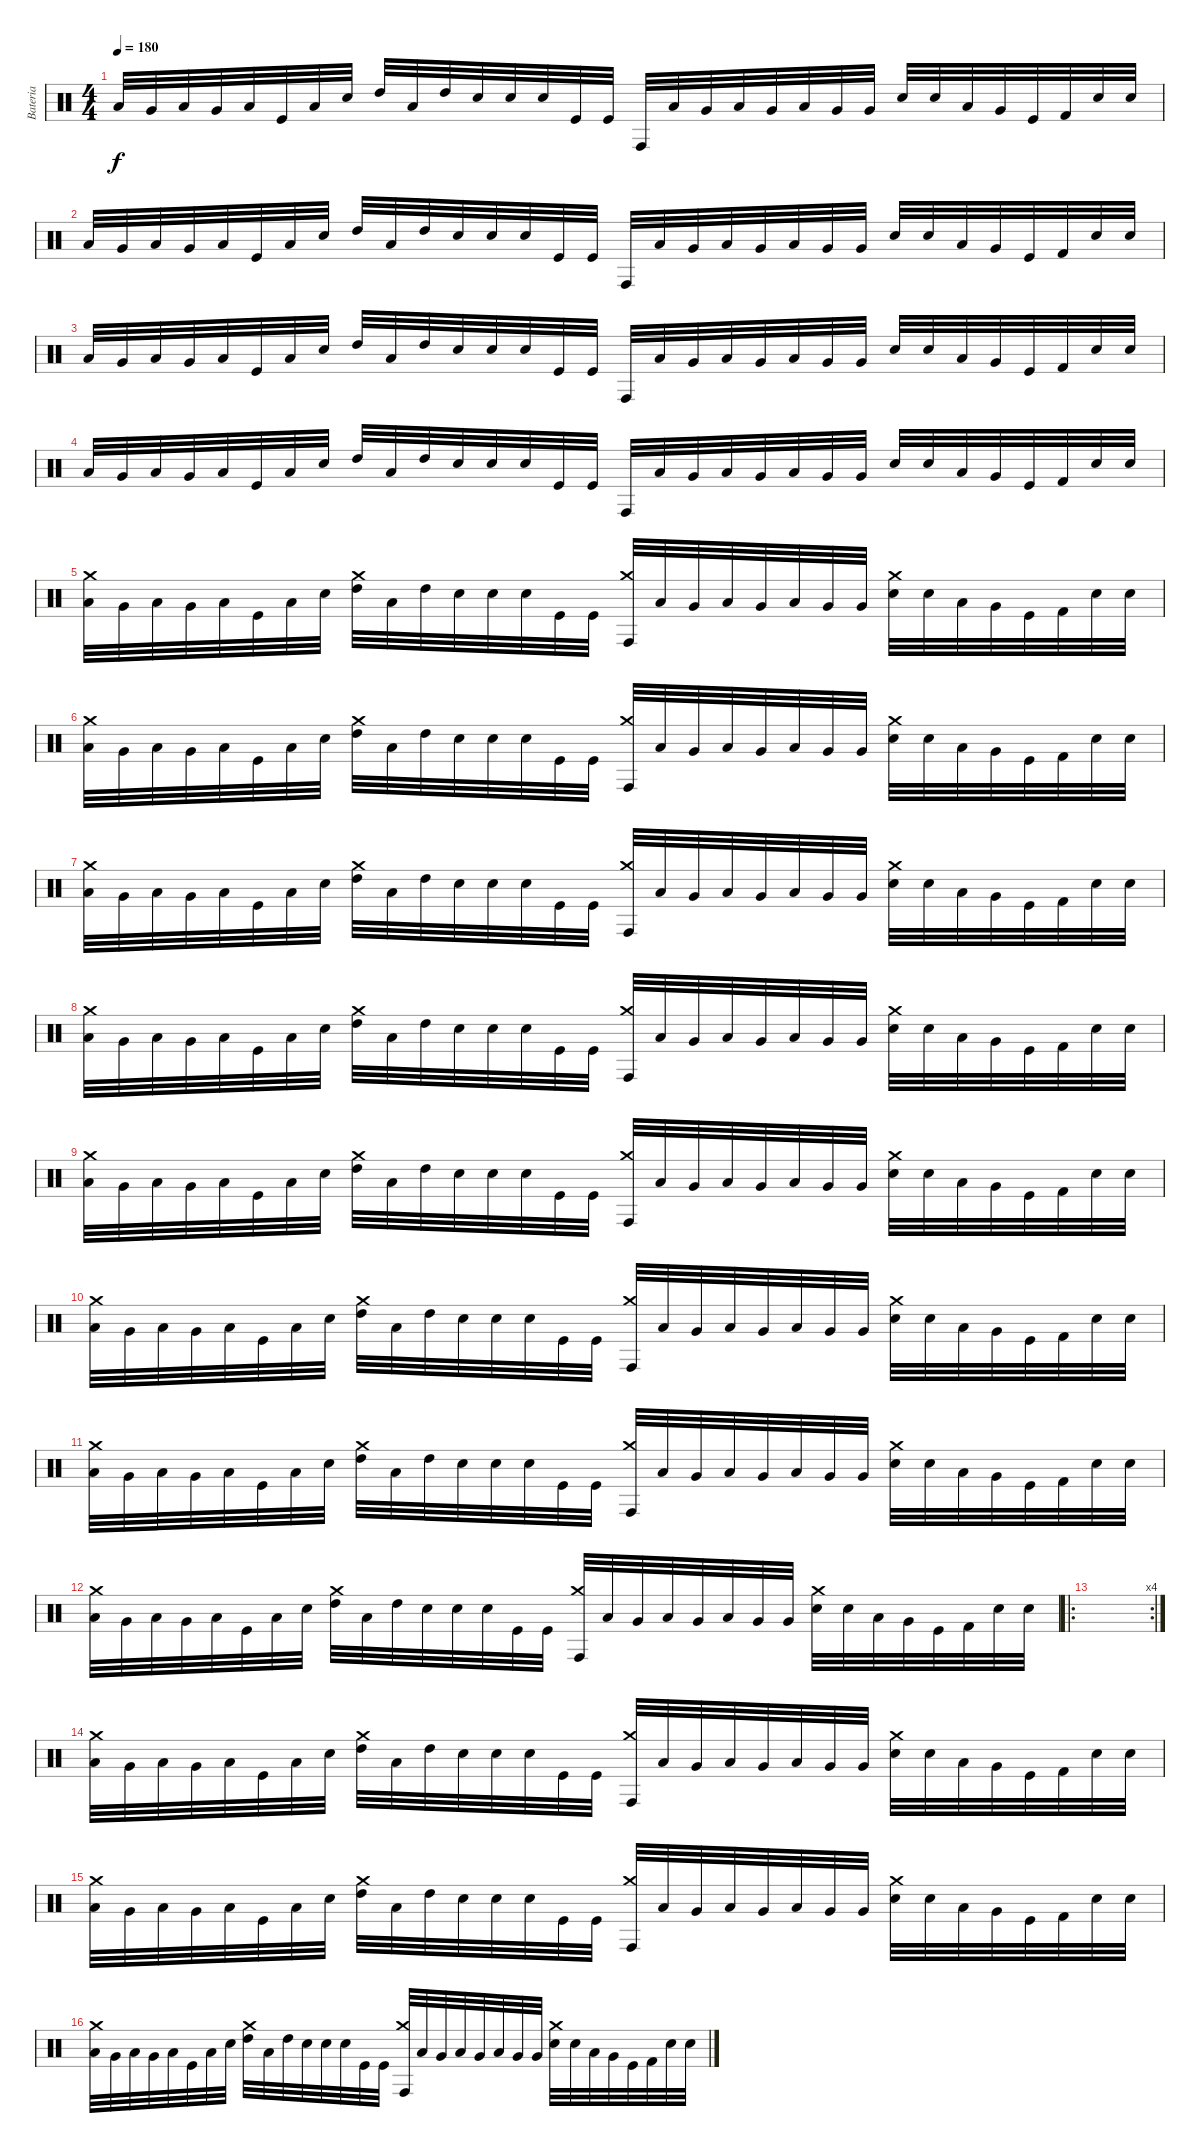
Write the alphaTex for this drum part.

\track ("Bateria" "Bateria") {instrument percussion}
\staff {score}
\articulation defaults
\ts (4 4)
\tempo 180
\clef neutral
\ks c "Low Tom (hit)".32{dy f} "Very Low Tom (hit)".32 "Low Tom (hit)".32 "Very Low Tom (hit)".32 "Low Tom (hit)".32 "Kick (hit)".32 "Low Tom (hit)".32 "Electric Snare (hit)".32 "High Tom (hit)".32 "Low Tom (hit)".32 "High Tom (hit)".32 "Snare (hit) 2".32 "Electric Snare (hit)".32 "Electric Snare (hit)".32 "Kick (hit)".32 "Kick (hit)".32 "Conga high (hit)".32 "Low Tom (hit)".32 "Very Low Tom (hit)".32 "Low Tom (hit)".32 "Very Low Tom (hit)".32 "Low Tom (hit)".32 "Very Low Tom (hit)".32 "Very Low Tom (hit)".32 "Electric Snare (hit)".32 "Snare (hit) 2".32 "Low Tom (hit)".32 "Very Low Tom (hit)".32 "Kick (hit)".32 "Kick (hit) 2".32 "Snare (hit) 2".32 "Snare (hit) 2".32
|
"Low Tom (hit)".32 "Very Low Tom (hit)".32 "Low Tom (hit)".32 "Very Low Tom (hit)".32 "Low Tom (hit)".32 "Kick (hit)".32 "Low Tom (hit)".32 "Electric Snare (hit)".32 "High Tom (hit)".32 "Low Tom (hit)".32 "High Tom (hit)".32 "Snare (hit) 2".32 "Electric Snare (hit)".32 "Electric Snare (hit)".32 "Kick (hit)".32 "Kick (hit)".32 "Conga high (hit)".32 "Low Tom (hit)".32 "Very Low Tom (hit)".32 "Low Tom (hit)".32 "Very Low Tom (hit)".32 "Low Tom (hit)".32 "Very Low Tom (hit)".32 "Very Low Tom (hit)".32 "Electric Snare (hit)".32 "Snare (hit) 2".32 "Low Tom (hit)".32 "Very Low Tom (hit)".32 "Kick (hit)".32 "Kick (hit) 2".32 "Snare (hit) 2".32 "Snare (hit) 2".32 |
"Low Tom (hit)".32 "Very Low Tom (hit)".32 "Low Tom (hit)".32 "Very Low Tom (hit)".32 "Low Tom (hit)".32 "Kick (hit)".32 "Low Tom (hit)".32 "Electric Snare (hit)".32 "High Tom (hit)".32 "Low Tom (hit)".32 "High Tom (hit)".32 "Snare (hit) 2".32 "Electric Snare (hit)".32 "Electric Snare (hit)".32 "Kick (hit)".32 "Kick (hit)".32 "Conga high (hit)".32 "Low Tom (hit)".32 "Very Low Tom (hit)".32 "Low Tom (hit)".32 "Very Low Tom (hit)".32 "Low Tom (hit)".32 "Very Low Tom (hit)".32 "Very Low Tom (hit)".32 "Electric Snare (hit)".32 "Snare (hit) 2".32 "Low Tom (hit)".32 "Very Low Tom (hit)".32 "Kick (hit)".32 "Kick (hit) 2".32 "Snare (hit) 2".32 "Snare (hit) 2".32 |
"Low Tom (hit)".32 "Very Low Tom (hit)".32 "Low Tom (hit)".32 "Very Low Tom (hit)".32 "Low Tom (hit)".32 "Kick (hit)".32 "Low Tom (hit)".32 "Electric Snare (hit)".32 "High Tom (hit)".32 "Low Tom (hit)".32 "High Tom (hit)".32 "Snare (hit) 2".32 "Electric Snare (hit)".32 "Electric Snare (hit)".32 "Kick (hit)".32 "Kick (hit)".32 "Conga high (hit)".32 "Low Tom (hit)".32 "Very Low Tom (hit)".32 "Low Tom (hit)".32 "Very Low Tom (hit)".32 "Low Tom (hit)".32 "Very Low Tom (hit)".32 "Very Low Tom (hit)".32 "Electric Snare (hit)".32 "Snare (hit) 2".32 "Low Tom (hit)".32 "Very Low Tom (hit)".32 "Kick (hit)".32 "Kick (hit) 2".32 "Snare (hit) 2".32 "Snare (hit) 2".32 |
("Low Tom (hit)" "Crash medium (hit)").32 "Very Low Tom (hit)".32 "Low Tom (hit)".32 "Very Low Tom (hit)".32 "Low Tom (hit)".32 "Kick (hit)".32 "Low Tom (hit)".32 "Electric Snare (hit)".32 ("High Tom (hit)" "Crash medium (hit)").32 "Low Tom (hit)".32 "High Tom (hit)".32 "Snare (hit) 2".32 "Electric Snare (hit)".32 "Electric Snare (hit)".32 "Kick (hit)".32 "Kick (hit)".32 ("Conga high (hit)" "Crash medium (hit)").32 "Low Tom (hit)".32 "Very Low Tom (hit)".32 "Low Tom (hit)".32 "Very Low Tom (hit)".32 "Low Tom (hit)".32 "Very Low Tom (hit)".32 "Very Low Tom (hit)".32 ("Electric Snare (hit)" "Crash medium (hit)").32 "Snare (hit) 2".32 "Low Tom (hit)".32 "Very Low Tom (hit)".32 "Kick (hit)".32 "Kick (hit) 2".32 "Snare (hit) 2".32 "Snare (hit) 2".32 |
("Low Tom (hit)" "Crash medium (hit)").32 "Very Low Tom (hit)".32 "Low Tom (hit)".32 "Very Low Tom (hit)".32 "Low Tom (hit)".32 "Kick (hit)".32 "Low Tom (hit)".32 "Electric Snare (hit)".32 ("High Tom (hit)" "Crash medium (hit)").32 "Low Tom (hit)".32 "High Tom (hit)".32 "Snare (hit) 2".32 "Electric Snare (hit)".32 "Electric Snare (hit)".32 "Kick (hit)".32 "Kick (hit)".32 ("Conga high (hit)" "Crash medium (hit)").32 "Low Tom (hit)".32 "Very Low Tom (hit)".32 "Low Tom (hit)".32 "Very Low Tom (hit)".32 "Low Tom (hit)".32 "Very Low Tom (hit)".32 "Very Low Tom (hit)".32 ("Electric Snare (hit)" "Crash medium (hit)").32 "Snare (hit) 2".32 "Low Tom (hit)".32 "Very Low Tom (hit)".32 "Kick (hit)".32 "Kick (hit) 2".32 "Snare (hit) 2".32 "Snare (hit) 2".32 |
("Low Tom (hit)" "Crash medium (hit)").32 "Very Low Tom (hit)".32 "Low Tom (hit)".32 "Very Low Tom (hit)".32 "Low Tom (hit)".32 "Kick (hit)".32 "Low Tom (hit)".32 "Electric Snare (hit)".32 ("High Tom (hit)" "Crash medium (hit)").32 "Low Tom (hit)".32 "High Tom (hit)".32 "Snare (hit) 2".32 "Electric Snare (hit)".32 "Electric Snare (hit)".32 "Kick (hit)".32 "Kick (hit)".32 ("Conga high (hit)" "Crash medium (hit)").32 "Low Tom (hit)".32 "Very Low Tom (hit)".32 "Low Tom (hit)".32 "Very Low Tom (hit)".32 "Low Tom (hit)".32 "Very Low Tom (hit)".32 "Very Low Tom (hit)".32 ("Electric Snare (hit)" "Crash medium (hit)").32 "Snare (hit) 2".32 "Low Tom (hit)".32 "Very Low Tom (hit)".32 "Kick (hit)".32 "Kick (hit) 2".32 "Snare (hit) 2".32 "Snare (hit) 2".32 |
("Low Tom (hit)" "Crash medium (hit)").32 "Very Low Tom (hit)".32 "Low Tom (hit)".32 "Very Low Tom (hit)".32 "Low Tom (hit)".32 "Kick (hit)".32 "Low Tom (hit)".32 "Electric Snare (hit)".32 ("High Tom (hit)" "Crash medium (hit)").32 "Low Tom (hit)".32 "High Tom (hit)".32 "Snare (hit) 2".32 "Electric Snare (hit)".32 "Electric Snare (hit)".32 "Kick (hit)".32 "Kick (hit)".32 ("Conga high (hit)" "Crash medium (hit)").32 "Low Tom (hit)".32 "Very Low Tom (hit)".32 "Low Tom (hit)".32 "Very Low Tom (hit)".32 "Low Tom (hit)".32 "Very Low Tom (hit)".32 "Very Low Tom (hit)".32 ("Electric Snare (hit)" "Crash medium (hit)").32 "Snare (hit) 2".32 "Low Tom (hit)".32 "Very Low Tom (hit)".32 "Kick (hit)".32 "Kick (hit) 2".32 "Snare (hit) 2".32 "Snare (hit) 2".32 |
("Low Tom (hit)" "Crash medium (hit)").32 "Very Low Tom (hit)".32 "Low Tom (hit)".32 "Very Low Tom (hit)".32 "Low Tom (hit)".32 "Kick (hit)".32 "Low Tom (hit)".32 "Electric Snare (hit)".32 ("High Tom (hit)" "Crash medium (hit)").32 "Low Tom (hit)".32 "High Tom (hit)".32 "Snare (hit) 2".32 "Electric Snare (hit)".32 "Electric Snare (hit)".32 "Kick (hit)".32 "Kick (hit)".32 ("Conga high (hit)" "Crash medium (hit)").32 "Low Tom (hit)".32 "Very Low Tom (hit)".32 "Low Tom (hit)".32 "Very Low Tom (hit)".32 "Low Tom (hit)".32 "Very Low Tom (hit)".32 "Very Low Tom (hit)".32 ("Electric Snare (hit)" "Crash medium (hit)").32 "Snare (hit) 2".32 "Low Tom (hit)".32 "Very Low Tom (hit)".32 "Kick (hit)".32 "Kick (hit) 2".32 "Snare (hit) 2".32 "Snare (hit) 2".32 |
("Low Tom (hit)" "Crash medium (hit)").32 "Very Low Tom (hit)".32 "Low Tom (hit)".32 "Very Low Tom (hit)".32 "Low Tom (hit)".32 "Kick (hit)".32 "Low Tom (hit)".32 "Electric Snare (hit)".32 ("High Tom (hit)" "Crash medium (hit)").32 "Low Tom (hit)".32 "High Tom (hit)".32 "Snare (hit) 2".32 "Electric Snare (hit)".32 "Electric Snare (hit)".32 "Kick (hit)".32 "Kick (hit)".32 ("Conga high (hit)" "Crash medium (hit)").32 "Low Tom (hit)".32 "Very Low Tom (hit)".32 "Low Tom (hit)".32 "Very Low Tom (hit)".32 "Low Tom (hit)".32 "Very Low Tom (hit)".32 "Very Low Tom (hit)".32 ("Electric Snare (hit)" "Crash medium (hit)").32 "Snare (hit) 2".32 "Low Tom (hit)".32 "Very Low Tom (hit)".32 "Kick (hit)".32 "Kick (hit) 2".32 "Snare (hit) 2".32 "Snare (hit) 2".32 |
("Low Tom (hit)" "Crash medium (hit)").32 "Very Low Tom (hit)".32 "Low Tom (hit)".32 "Very Low Tom (hit)".32 "Low Tom (hit)".32 "Kick (hit)".32 "Low Tom (hit)".32 "Electric Snare (hit)".32 ("High Tom (hit)" "Crash medium (hit)").32 "Low Tom (hit)".32 "High Tom (hit)".32 "Snare (hit) 2".32 "Electric Snare (hit)".32 "Electric Snare (hit)".32 "Kick (hit)".32 "Kick (hit)".32 ("Conga high (hit)" "Crash medium (hit)").32 "Low Tom (hit)".32 "Very Low Tom (hit)".32 "Low Tom (hit)".32 "Very Low Tom (hit)".32 "Low Tom (hit)".32 "Very Low Tom (hit)".32 "Very Low Tom (hit)".32 ("Electric Snare (hit)" "Crash medium (hit)").32 "Snare (hit) 2".32 "Low Tom (hit)".32 "Very Low Tom (hit)".32 "Kick (hit)".32 "Kick (hit) 2".32 "Snare (hit) 2".32 "Snare (hit) 2".32 |
("Low Tom (hit)" "Crash medium (hit)").32 "Very Low Tom (hit)".32 "Low Tom (hit)".32 "Very Low Tom (hit)".32 "Low Tom (hit)".32 "Kick (hit)".32 "Low Tom (hit)".32 "Electric Snare (hit)".32 ("High Tom (hit)" "Crash medium (hit)").32 "Low Tom (hit)".32 "High Tom (hit)".32 "Snare (hit) 2".32 "Electric Snare (hit)".32 "Electric Snare (hit)".32 "Kick (hit)".32 "Kick (hit)".32 ("Conga high (hit)" "Crash medium (hit)").32 "Low Tom (hit)".32 "Very Low Tom (hit)".32 "Low Tom (hit)".32 "Very Low Tom (hit)".32 "Low Tom (hit)".32 "Very Low Tom (hit)".32 "Very Low Tom (hit)".32 ("Electric Snare (hit)" "Crash medium (hit)").32 "Snare (hit) 2".32 "Low Tom (hit)".32 "Very Low Tom (hit)".32 "Kick (hit)".32 "Kick (hit) 2".32 "Snare (hit) 2".32 "Snare (hit) 2".32 |
\ro
\rc 4
|
("Low Tom (hit)" "Crash medium (hit)").32 "Very Low Tom (hit)".32 "Low Tom (hit)".32 "Very Low Tom (hit)".32 "Low Tom (hit)".32 "Kick (hit)".32 "Low Tom (hit)".32 "Electric Snare (hit)".32 ("High Tom (hit)" "Crash medium (hit)").32 "Low Tom (hit)".32 "High Tom (hit)".32 "Snare (hit) 2".32 "Electric Snare (hit)".32 "Electric Snare (hit)".32 "Kick (hit)".32 "Kick (hit)".32 ("Conga high (hit)" "Crash medium (hit)").32 "Low Tom (hit)".32 "Very Low Tom (hit)".32 "Low Tom (hit)".32 "Very Low Tom (hit)".32 "Low Tom (hit)".32 "Very Low Tom (hit)".32 "Very Low Tom (hit)".32 ("Electric Snare (hit)" "Crash medium (hit)").32 "Snare (hit) 2".32 "Low Tom (hit)".32 "Very Low Tom (hit)".32 "Kick (hit)".32 "Kick (hit) 2".32 "Snare (hit) 2".32 "Snare (hit) 2".32 |
("Low Tom (hit)" "Crash medium (hit)").32 "Very Low Tom (hit)".32 "Low Tom (hit)".32 "Very Low Tom (hit)".32 "Low Tom (hit)".32 "Kick (hit)".32 "Low Tom (hit)".32 "Electric Snare (hit)".32 ("High Tom (hit)" "Crash medium (hit)").32 "Low Tom (hit)".32 "High Tom (hit)".32 "Snare (hit) 2".32 "Electric Snare (hit)".32 "Electric Snare (hit)".32 "Kick (hit)".32 "Kick (hit)".32 ("Conga high (hit)" "Crash medium (hit)").32 "Low Tom (hit)".32 "Very Low Tom (hit)".32 "Low Tom (hit)".32 "Very Low Tom (hit)".32 "Low Tom (hit)".32 "Very Low Tom (hit)".32 "Very Low Tom (hit)".32 ("Electric Snare (hit)" "Crash medium (hit)").32 "Snare (hit) 2".32 "Low Tom (hit)".32 "Very Low Tom (hit)".32 "Kick (hit)".32 "Kick (hit) 2".32 "Snare (hit) 2".32 "Snare (hit) 2".32 |
("Low Tom (hit)" "Crash medium (hit)").32 "Very Low Tom (hit)".32 "Low Tom (hit)".32 "Very Low Tom (hit)".32 "Low Tom (hit)".32 "Kick (hit)".32 "Low Tom (hit)".32 "Electric Snare (hit)".32 ("High Tom (hit)" "Crash medium (hit)").32 "Low Tom (hit)".32 "High Tom (hit)".32 "Snare (hit) 2".32 "Electric Snare (hit)".32 "Electric Snare (hit)".32 "Kick (hit)".32 "Kick (hit)".32 ("Conga high (hit)" "Crash medium (hit)").32 "Low Tom (hit)".32 "Very Low Tom (hit)".32 "Low Tom (hit)".32 "Very Low Tom (hit)".32 "Low Tom (hit)".32 "Very Low Tom (hit)".32 "Very Low Tom (hit)".32 ("Electric Snare (hit)" "Crash medium (hit)").32 "Snare (hit) 2".32 "Low Tom (hit)".32 "Very Low Tom (hit)".32 "Kick (hit)".32 "Kick (hit) 2".32 "Snare (hit) 2".32 "Snare (hit) 2".32
